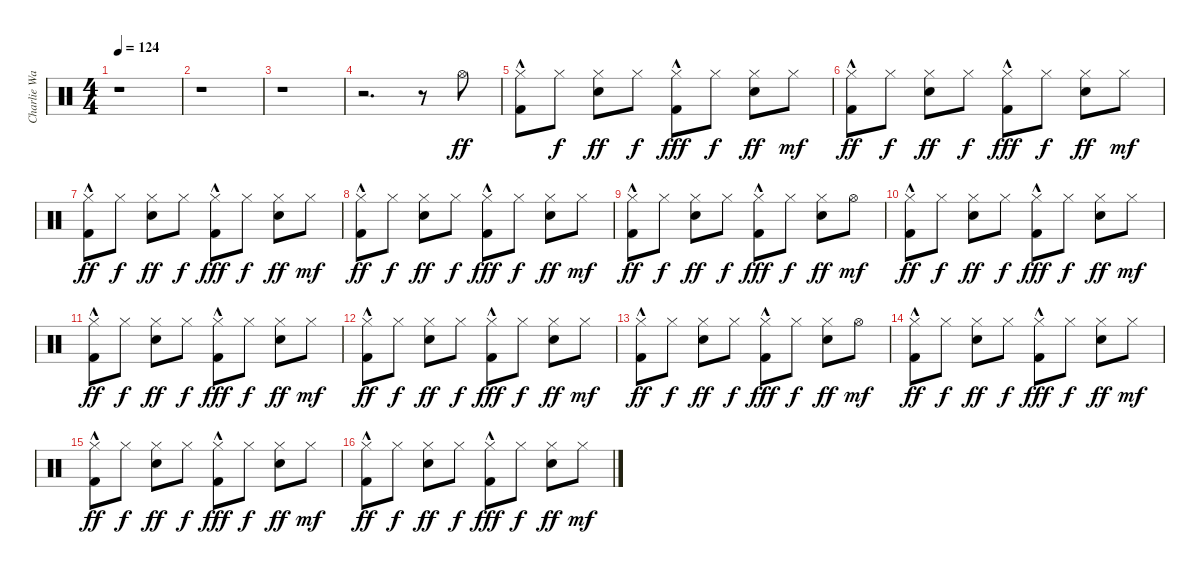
\track ("Charlie Watts" "Charlie Wa") {instrument percussion}
\staff {score}
\articulation defaults
\ts (4 4)
\tempo 124
\clef neutral
\ks c
r.1{dy ff} |
r.1 |
r.1 |
r.2{d} r.8 "Hi-Hat (open)".8 |
("Kick (hit) 2"{hac} "Hi-Hat (closed)").8 "Hi-Hat (closed)".8{dy f} ("Snare (hit) 2" "Hi-Hat (closed)").8{dy ff} "Hi-Hat (closed)".8{dy f} ("Kick (hit) 2"{hac} "Hi-Hat (closed)").8{dy fff} "Hi-Hat (closed)".8{dy f} ("Snare (hit) 2" "Hi-Hat (closed)").8{dy ff} "Hi-Hat (closed)".8{dy mf} |
("Kick (hit) 2"{hac} "Hi-Hat (closed)").8{dy ff} "Hi-Hat (closed)".8{dy f} ("Snare (hit) 2" "Hi-Hat (closed)").8{dy ff} "Hi-Hat (closed)".8{dy f} ("Kick (hit) 2"{hac} "Hi-Hat (closed)").8{dy fff} "Hi-Hat (closed)".8{dy f} ("Snare (hit) 2" "Hi-Hat (closed)").8{dy ff} "Hi-Hat (closed)".8{dy mf} |
("Kick (hit) 2"{hac} "Hi-Hat (closed)").8{dy ff} "Hi-Hat (closed)".8{dy f} ("Snare (hit) 2" "Hi-Hat (closed)").8{dy ff} "Hi-Hat (closed)".8{dy f} ("Kick (hit) 2"{hac} "Hi-Hat (closed)").8{dy fff} "Hi-Hat (closed)".8{dy f} ("Snare (hit) 2" "Hi-Hat (closed)").8{dy ff} "Hi-Hat (closed)".8{dy mf} |
("Kick (hit) 2"{hac} "Hi-Hat (closed)").8{dy ff} "Hi-Hat (closed)".8{dy f} ("Snare (hit) 2" "Hi-Hat (closed)").8{dy ff} "Hi-Hat (closed)".8{dy f} ("Kick (hit) 2"{hac} "Hi-Hat (closed)").8{dy fff} "Hi-Hat (closed)".8{dy f} ("Snare (hit) 2" "Hi-Hat (closed)").8{dy ff} "Hi-Hat (closed)".8{dy mf} |
("Kick (hit) 2"{hac} "Hi-Hat (closed)").8{dy ff} "Hi-Hat (closed)".8{dy f} ("Snare (hit) 2" "Hi-Hat (closed)").8{dy ff} "Hi-Hat (closed)".8{dy f} ("Kick (hit) 2"{hac} "Hi-Hat (closed)").8{dy fff} "Hi-Hat (closed)".8{dy f} ("Snare (hit) 2" "Hi-Hat (closed)").8{dy ff} "Hi-Hat (open)".8{dy mf} |
("Kick (hit) 2"{hac} "Hi-Hat (closed)").8{dy ff} "Hi-Hat (closed)".8{dy f} ("Snare (hit) 2" "Hi-Hat (closed)").8{dy ff} "Hi-Hat (closed)".8{dy f} ("Kick (hit) 2"{hac} "Hi-Hat (closed)").8{dy fff} "Hi-Hat (closed)".8{dy f} ("Snare (hit) 2" "Hi-Hat (closed)").8{dy ff} "Hi-Hat (closed)".8{dy mf} |
("Kick (hit) 2"{hac} "Hi-Hat (closed)").8{dy ff} "Hi-Hat (closed)".8{dy f} ("Snare (hit) 2" "Hi-Hat (closed)").8{dy ff} "Hi-Hat (closed)".8{dy f} ("Kick (hit) 2"{hac} "Hi-Hat (closed)").8{dy fff} "Hi-Hat (closed)".8{dy f} ("Snare (hit) 2" "Hi-Hat (closed)").8{dy ff} "Hi-Hat (closed)".8{dy mf} |
("Kick (hit) 2"{hac} "Hi-Hat (closed)").8{dy ff} "Hi-Hat (closed)".8{dy f} ("Snare (hit) 2" "Hi-Hat (closed)").8{dy ff} "Hi-Hat (closed)".8{dy f} ("Kick (hit) 2"{hac} "Hi-Hat (closed)").8{dy fff} "Hi-Hat (closed)".8{dy f} ("Snare (hit) 2" "Hi-Hat (closed)").8{dy ff} "Hi-Hat (closed)".8{dy mf} |
("Kick (hit) 2"{hac} "Hi-Hat (closed)").8{dy ff} "Hi-Hat (closed)".8{dy f} ("Snare (hit) 2" "Hi-Hat (closed)").8{dy ff} "Hi-Hat (closed)".8{dy f} ("Kick (hit) 2"{hac} "Hi-Hat (closed)").8{dy fff} "Hi-Hat (closed)".8{dy f} ("Snare (hit) 2" "Hi-Hat (closed)").8{dy ff} "Hi-Hat (open)".8{dy mf} |
("Kick (hit) 2"{hac} "Hi-Hat (closed)").8{dy ff} "Hi-Hat (closed)".8{dy f} ("Snare (hit) 2" "Hi-Hat (closed)").8{dy ff} "Hi-Hat (closed)".8{dy f} ("Kick (hit) 2"{hac} "Hi-Hat (closed)").8{dy fff} "Hi-Hat (closed)".8{dy f} ("Snare (hit) 2" "Hi-Hat (closed)").8{dy ff} "Hi-Hat (closed)".8{dy mf} |
("Kick (hit) 2"{hac} "Hi-Hat (closed)").8{dy ff} "Hi-Hat (closed)".8{dy f} ("Snare (hit) 2" "Hi-Hat (closed)").8{dy ff} "Hi-Hat (closed)".8{dy f} ("Kick (hit) 2"{hac} "Hi-Hat (closed)").8{dy fff} "Hi-Hat (closed)".8{dy f} ("Snare (hit) 2" "Hi-Hat (closed)").8{dy ff} "Hi-Hat (closed)".8{dy mf} |
("Kick (hit) 2"{hac} "Hi-Hat (closed)").8{dy ff} "Hi-Hat (closed)".8{dy f} ("Snare (hit) 2" "Hi-Hat (closed)").8{dy ff} "Hi-Hat (closed)".8{dy f} ("Kick (hit) 2"{hac} "Hi-Hat (closed)").8{dy fff} "Hi-Hat (closed)".8{dy f} ("Snare (hit) 2" "Hi-Hat (closed)").8{dy ff} "Hi-Hat (closed)".8{dy mf}
